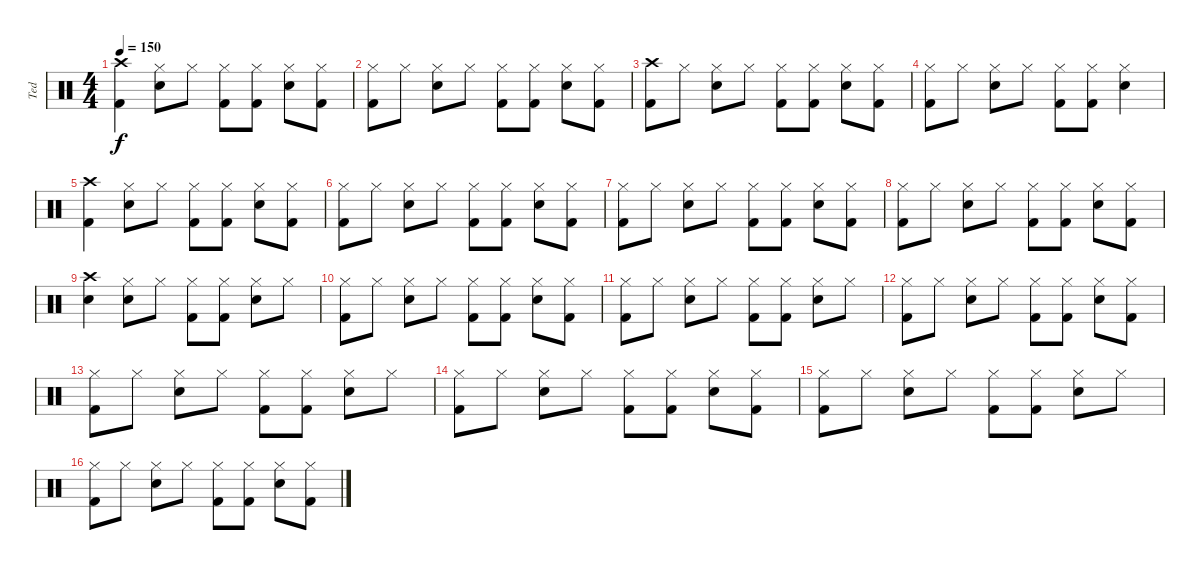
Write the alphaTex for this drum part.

\track ("Ted" "Ted") {instrument percussion}
\staff {score}
\articulation defaults
\ts (4 4)
\tempo 150
\clef neutral
\ks c
("Crash high (hit)" "Kick (hit) 2").4{dy f} ("Hi-Hat (closed)" "Electric Snare (hit)").8 "Hi-Hat (closed)".8 ("Hi-Hat (closed)" "Kick (hit) 2").8 ("Hi-Hat (closed)" "Kick (hit) 2").8 ("Hi-Hat (closed)" "Electric Snare (hit)").8 ("Hi-Hat (closed)" "Kick (hit) 2").8 |
("Hi-Hat (closed)" "Kick (hit) 2").8 "Hi-Hat (closed)".8 ("Hi-Hat (closed)" "Electric Snare (hit)").8 "Hi-Hat (closed)".8 ("Hi-Hat (closed)" "Kick (hit) 2").8 ("Hi-Hat (closed)" "Kick (hit) 2").8 ("Hi-Hat (closed)" "Electric Snare (hit)").8 ("Hi-Hat (closed)" "Kick (hit) 2").8 |
("Crash high (hit)" "Kick (hit) 2").8 "Hi-Hat (closed)".8 ("Hi-Hat (closed)" "Electric Snare (hit)").8 "Hi-Hat (closed)".8 ("Hi-Hat (closed)" "Kick (hit) 2").8 ("Hi-Hat (closed)" "Kick (hit) 2").8 ("Hi-Hat (closed)" "Electric Snare (hit)").8 ("Hi-Hat (closed)" "Kick (hit) 2").8 |
("Hi-Hat (closed)" "Kick (hit) 2").8 "Hi-Hat (closed)".8 ("Hi-Hat (closed)" "Electric Snare (hit)").8 "Hi-Hat (closed)".8 ("Hi-Hat (closed)" "Kick (hit) 2").8 ("Hi-Hat (closed)" "Kick (hit) 2").8 ("Hi-Hat (closed)" "Electric Snare (hit)").4 |
("Crash high (hit)" "Kick (hit) 2").4 ("Hi-Hat (closed)" "Electric Snare (hit)").8 "Hi-Hat (closed)".8 ("Hi-Hat (closed)" "Kick (hit) 2").8 ("Hi-Hat (closed)" "Kick (hit) 2").8 ("Hi-Hat (closed)" "Electric Snare (hit)").8 ("Hi-Hat (closed)" "Kick (hit) 2").8 |
("Hi-Hat (closed)" "Kick (hit) 2").8 "Hi-Hat (closed)".8 ("Hi-Hat (closed)" "Electric Snare (hit)").8 "Hi-Hat (closed)".8 ("Hi-Hat (closed)" "Kick (hit) 2").8 ("Hi-Hat (closed)" "Kick (hit) 2").8 ("Hi-Hat (closed)" "Electric Snare (hit)").8 ("Hi-Hat (closed)" "Kick (hit) 2").8 |
("Hi-Hat (closed)" "Kick (hit) 2").8 "Hi-Hat (closed)".8 ("Hi-Hat (closed)" "Electric Snare (hit)").8 "Hi-Hat (closed)".8 ("Hi-Hat (closed)" "Kick (hit) 2").8 ("Hi-Hat (closed)" "Kick (hit) 2").8 ("Hi-Hat (closed)" "Electric Snare (hit)").8 ("Hi-Hat (closed)" "Kick (hit) 2").8 |
("Hi-Hat (closed)" "Kick (hit) 2").8 "Hi-Hat (closed)".8 ("Hi-Hat (closed)" "Electric Snare (hit)").8 "Hi-Hat (closed)".8 ("Hi-Hat (closed)" "Kick (hit) 2").8 ("Hi-Hat (closed)" "Kick (hit) 2").8 ("Hi-Hat (closed)" "Electric Snare (hit)").8 ("Hi-Hat (closed)" "Kick (hit) 2").8 |
("Crash high (hit)" "Electric Snare (hit)").4 ("Hi-Hat (closed)" "Electric Snare (hit)").8 "Hi-Hat (closed)".8 ("Hi-Hat (closed)" "Kick (hit) 2").8 ("Hi-Hat (closed)" "Kick (hit) 2").8 ("Hi-Hat (closed)" "Electric Snare (hit)").8 "Hi-Hat (closed)".8 |
("Hi-Hat (closed)" "Kick (hit) 2").8 "Hi-Hat (closed)".8 ("Hi-Hat (closed)" "Electric Snare (hit)").8 "Hi-Hat (closed)".8 ("Hi-Hat (closed)" "Kick (hit) 2").8 ("Hi-Hat (closed)" "Kick (hit) 2").8 ("Hi-Hat (closed)" "Electric Snare (hit)").8 ("Hi-Hat (closed)" "Kick (hit) 2").8 |
("Hi-Hat (closed)" "Kick (hit) 2").8 "Hi-Hat (closed)".8 ("Hi-Hat (closed)" "Electric Snare (hit)").8 "Hi-Hat (closed)".8 ("Hi-Hat (closed)" "Kick (hit) 2").8 ("Hi-Hat (closed)" "Kick (hit) 2").8 ("Hi-Hat (closed)" "Electric Snare (hit)").8 "Hi-Hat (closed)".8 |
("Hi-Hat (closed)" "Kick (hit) 2").8 "Hi-Hat (closed)".8 ("Hi-Hat (closed)" "Electric Snare (hit)").8 "Hi-Hat (closed)".8 ("Hi-Hat (closed)" "Kick (hit) 2").8 ("Hi-Hat (closed)" "Kick (hit) 2").8 ("Hi-Hat (closed)" "Electric Snare (hit)").8 ("Hi-Hat (closed)" "Kick (hit) 2").8 |
("Hi-Hat (closed)" "Kick (hit) 2").8 "Hi-Hat (closed)".8 ("Hi-Hat (closed)" "Electric Snare (hit)").8 "Hi-Hat (closed)".8 ("Hi-Hat (closed)" "Kick (hit) 2").8 ("Hi-Hat (closed)" "Kick (hit) 2").8 ("Hi-Hat (closed)" "Electric Snare (hit)").8 "Hi-Hat (closed)".8 |
("Hi-Hat (closed)" "Kick (hit) 2").8 "Hi-Hat (closed)".8 ("Hi-Hat (closed)" "Electric Snare (hit)").8 "Hi-Hat (closed)".8 ("Hi-Hat (closed)" "Kick (hit) 2").8 ("Hi-Hat (closed)" "Kick (hit) 2").8 ("Hi-Hat (closed)" "Electric Snare (hit)").8 ("Hi-Hat (closed)" "Kick (hit) 2").8 |
("Hi-Hat (closed)" "Kick (hit) 2").8 "Hi-Hat (closed)".8 ("Hi-Hat (closed)" "Electric Snare (hit)").8 "Hi-Hat (closed)".8 ("Hi-Hat (closed)" "Kick (hit) 2").8 ("Hi-Hat (closed)" "Kick (hit) 2").8 ("Hi-Hat (closed)" "Electric Snare (hit)").8 "Hi-Hat (closed)".8 |
("Hi-Hat (closed)" "Kick (hit) 2").8 "Hi-Hat (closed)".8 ("Hi-Hat (closed)" "Electric Snare (hit)").8 "Hi-Hat (closed)".8 ("Hi-Hat (closed)" "Kick (hit) 2").8 ("Hi-Hat (closed)" "Kick (hit) 2").8 ("Hi-Hat (closed)" "Electric Snare (hit)").8 ("Hi-Hat (closed)" "Kick (hit) 2").8
